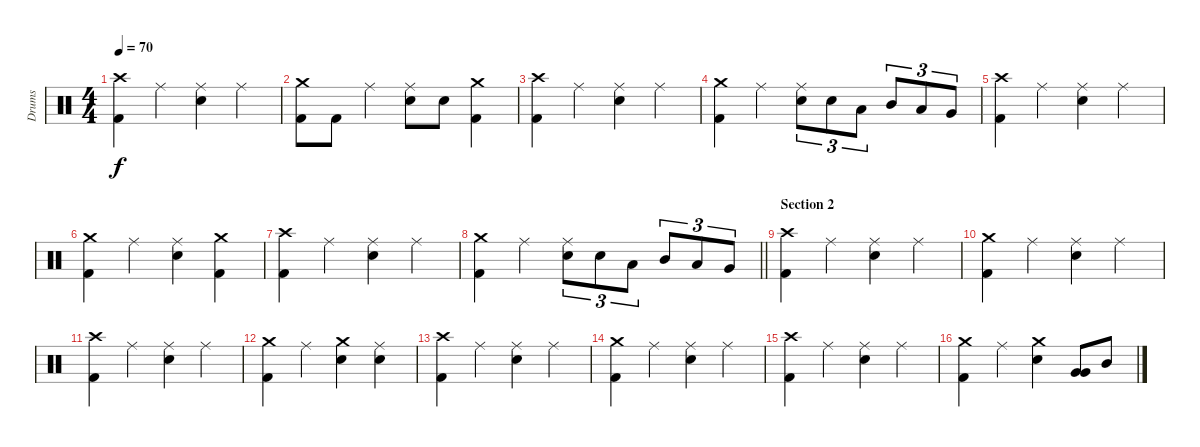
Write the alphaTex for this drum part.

\track ("Drums" "Drums") {instrument percussion}
\staff {score}
\articulation defaults
\ts (4 4)
\tempo 70
\clef neutral
\ks c
("Crash high (hit)" "Kick (hit) 2").4{dy f} "Ride (middle)".4 ("Ride (middle)" "Electric Snare (hit)").4 "Ride (middle)".4 |
("Crash medium (hit)" "Kick (hit) 2").8 "Kick (hit) 2".8 "Ride (middle)".4 ("Ride (middle)" "Electric Snare (hit)").8 "Electric Snare (hit)".8 ("Crash medium (hit)" "Kick (hit) 2").4 |
("Crash high (hit)" "Kick (hit) 2").4 "Ride (middle)".4 ("Ride (middle)" "Electric Snare (hit)").4 "Ride (middle)".4 |
("Crash medium (hit)" "Kick (hit) 2").4 "Ride (middle)".4 ("Ride (middle)" "Electric Snare (hit)").8{tu (3 2)} "Electric Snare (hit)".8{tu (3 2)} "Low Tom (hit)".8{tu (3 2)} "Mid Tom (hit)".8{tu (3 2)} "Low Tom (hit)".8{tu (3 2)} "Very Low Tom (hit)".8{tu (3 2)} |
("Crash high (hit)" "Kick (hit) 2").4 "Ride (middle)".4 ("Ride (middle)" "Electric Snare (hit)").4 "Ride (middle)".4 |
("Crash medium (hit)" "Kick (hit) 2").4 "Ride (middle)".4 ("Ride (middle)" "Electric Snare (hit)").4 ("Crash medium (hit)" "Kick (hit) 2").4 |
("Crash high (hit)" "Kick (hit) 2").4 "Ride (middle)".4 ("Ride (middle)" "Electric Snare (hit)").4 "Ride (middle)".4 |
\barLineRight lightlight
("Crash medium (hit)" "Kick (hit) 2").4 "Ride (middle)".4 ("Ride (middle)" "Electric Snare (hit)").8{tu (3 2)} "Electric Snare (hit)".8{tu (3 2)} "Low Tom (hit)".8{tu (3 2)} "Mid Tom (hit)".8{tu (3 2)} "Low Tom (hit)".8{tu (3 2)} "Very Low Tom (hit)".8{tu (3 2)} |
\section ("" "Section 2")
("Crash high (hit)" "Kick (hit) 2").4 "Ride (middle)".4 ("Ride (middle)" "Electric Snare (hit)").4 "Ride (middle)".4 |
("Crash medium (hit)" "Kick (hit) 2").4 "Ride (middle)".4 ("Ride (middle)" "Electric Snare (hit)").4 "Ride (middle)".4 |
("Crash high (hit)" "Kick (hit) 2").4 "Ride (middle)".4 ("Ride (middle)" "Electric Snare (hit)").4 "Ride (middle)".4 |
("Crash medium (hit)" "Kick (hit) 2").4 "Ride (middle)".4 ("Crash medium (hit)" "Electric Snare (hit)").4 ("Ride (middle)" "Electric Snare (hit)").4 |
("Crash high (hit)" "Kick (hit) 2").4 "Ride (middle)".4 ("Ride (middle)" "Electric Snare (hit)").4 "Ride (middle)".4 |
("Crash medium (hit)" "Kick (hit) 2").4 "Ride (middle)".4 ("Ride (middle)" "Electric Snare (hit)").4 "Ride (middle)".4 |
("Crash high (hit)" "Kick (hit) 2").4 "Ride (middle)".4 ("Ride (middle)" "Electric Snare (hit)").4 "Ride (middle)".4 |
("Crash medium (hit)" "Kick (hit) 2").4 "Ride (middle)".4 ("Crash medium (hit)" "Electric Snare (hit)").4 ("Very Low Tom (hit)" "Very Low Tom (hit)").8{bu 60} "Mid Tom (hit)".8
